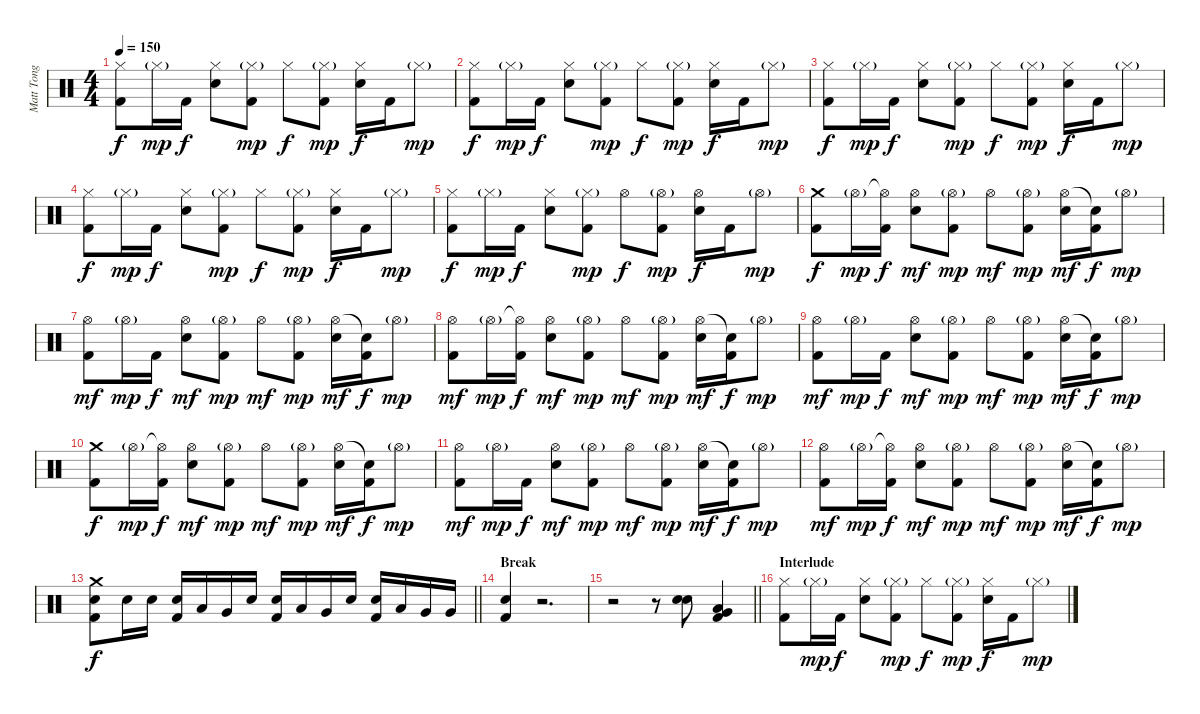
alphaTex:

\track ("Matt Tong" "Matt Tong") {instrument percussion}
\staff {score}
\articulation defaults
\ts (4 4)
\tempo 150
\clef neutral
\ks c
("Hi-Hat (closed)" "Kick (hit) 2").8{dy f} "Hi-Hat (closed)"{g}.16{dy mp} "Kick (hit) 2".16{dy f} ("Hi-Hat (closed)" "Electric Snare (hit)").8 ("Hi-Hat (closed)"{g} "Kick (hit) 2").8{dy mp} "Hi-Hat (closed)".8{dy f} ("Hi-Hat (closed)"{g} "Kick (hit) 2").8{dy mp} ("Hi-Hat (closed)" "Electric Snare (hit)").16{dy f} "Kick (hit) 2".16 "Hi-Hat (closed)"{g}.8{dy mp} |
("Hi-Hat (closed)" "Kick (hit) 2").8{dy f} "Hi-Hat (closed)"{g}.16{dy mp} "Kick (hit) 2".16{dy f} ("Hi-Hat (closed)" "Electric Snare (hit)").8 ("Hi-Hat (closed)"{g} "Kick (hit) 2").8{dy mp} "Hi-Hat (closed)".8{dy f} ("Hi-Hat (closed)"{g} "Kick (hit) 2").8{dy mp} ("Hi-Hat (closed)" "Electric Snare (hit)").16{dy f} "Kick (hit) 2".16 "Hi-Hat (closed)"{g}.8{dy mp} |
("Hi-Hat (closed)" "Kick (hit) 2").8{dy f} "Hi-Hat (closed)"{g}.16{dy mp} "Kick (hit) 2".16{dy f} ("Hi-Hat (closed)" "Electric Snare (hit)").8 ("Hi-Hat (closed)"{g} "Kick (hit) 2").8{dy mp} "Hi-Hat (closed)".8{dy f} ("Hi-Hat (closed)"{g} "Kick (hit) 2").8{dy mp} ("Hi-Hat (closed)" "Electric Snare (hit)").16{dy f} "Kick (hit) 2".16 "Hi-Hat (closed)"{g}.8{dy mp} |
("Hi-Hat (closed)" "Kick (hit) 2").8{dy f} "Hi-Hat (closed)"{g}.16{dy mp} "Kick (hit) 2".16{dy f} ("Hi-Hat (closed)" "Electric Snare (hit)").8 ("Hi-Hat (closed)"{g} "Kick (hit) 2").8{dy mp} "Hi-Hat (closed)".8{dy f} ("Hi-Hat (closed)"{g} "Kick (hit) 2").8{dy mp} ("Hi-Hat (closed)" "Electric Snare (hit)").16{dy f} "Kick (hit) 2".16 "Hi-Hat (closed)"{g}.8{dy mp} |
("Hi-Hat (closed)" "Kick (hit) 2").8{dy f} "Hi-Hat (closed)"{g}.16{dy mp} "Kick (hit) 2".16{dy f} ("Hi-Hat (closed)" "Electric Snare (hit)").8 ("Hi-Hat (closed)"{g} "Kick (hit) 2").8{dy mp} "Hi-Hat (open)".8{dy f} ("Hi-Hat (open)"{g} "Kick (hit) 2").8{dy mp} ("Hi-Hat (open)" "Electric Snare (hit)").16{dy f} "Kick (hit) 2".16 "Hi-Hat (open)"{g}.8{dy mp} |
("Crash medium (hit)" "Kick (hit) 2").8{dy f} "Hi-Hat (open)"{g}.16{dy mp} ("Hi-Hat (open)"{t} "Kick (hit) 2").16{dy f} ("Hi-Hat (open)" "Electric Snare (hit)").8{dy mf} ("Hi-Hat (open)"{g} "Kick (hit) 2").8{dy mp} "Hi-Hat (open)".8{dy mf} ("Hi-Hat (open)"{g} "Kick (hit) 2").8{dy mp} ("Hi-Hat (open)" "Electric Snare (hit)").16{dy mf} ("Snare (hit)"{t} "Kick (hit) 2").16{dy f} "Hi-Hat (open)"{g}.8{dy mp} |
("Hi-Hat (open)" "Kick (hit) 2").8{dy mf} "Hi-Hat (open)"{g}.16{dy mp} "Kick (hit) 2".16{dy f} ("Hi-Hat (open)" "Electric Snare (hit)").8{dy mf} ("Hi-Hat (open)"{g} "Kick (hit) 2").8{dy mp} "Hi-Hat (open)".8{dy mf} ("Hi-Hat (open)"{g} "Kick (hit) 2").8{dy mp} ("Hi-Hat (open)" "Electric Snare (hit)").16{dy mf} ("Snare (hit)"{t} "Kick (hit) 2").16{dy f} "Hi-Hat (open)"{g}.8{dy mp} |
("Hi-Hat (open)" "Kick (hit) 2").8{dy mf} "Hi-Hat (open)"{g}.16{dy mp} ("Hi-Hat (open)"{t} "Kick (hit) 2").16{dy f} ("Hi-Hat (open)" "Electric Snare (hit)").8{dy mf} ("Hi-Hat (open)"{g} "Kick (hit) 2").8{dy mp} "Hi-Hat (open)".8{dy mf} ("Hi-Hat (open)"{g} "Kick (hit) 2").8{dy mp} ("Hi-Hat (open)" "Electric Snare (hit)").16{dy mf} ("Snare (hit)"{t} "Kick (hit) 2").16{dy f} "Hi-Hat (open)"{g}.8{dy mp} |
("Hi-Hat (open)" "Kick (hit) 2").8{dy mf} "Hi-Hat (open)"{g}.16{dy mp} "Kick (hit) 2".16{dy f} ("Hi-Hat (open)" "Electric Snare (hit)").8{dy mf} ("Hi-Hat (open)"{g} "Kick (hit) 2").8{dy mp} "Hi-Hat (open)".8{dy mf} ("Hi-Hat (open)"{g} "Kick (hit) 2").8{dy mp} ("Hi-Hat (open)" "Electric Snare (hit)").16{dy mf} ("Snare (hit)"{t} "Kick (hit) 2").16{dy f} "Hi-Hat (open)"{g}.8{dy mp} |
("Crash medium (hit)" "Kick (hit) 2").8{dy f} "Hi-Hat (open)"{g}.16{dy mp} ("Hi-Hat (open)"{t} "Kick (hit) 2").16{dy f} ("Hi-Hat (open)" "Electric Snare (hit)").8{dy mf} ("Hi-Hat (open)"{g} "Kick (hit) 2").8{dy mp} "Hi-Hat (open)".8{dy mf} ("Hi-Hat (open)"{g} "Kick (hit) 2").8{dy mp} ("Hi-Hat (open)" "Electric Snare (hit)").16{dy mf} ("Snare (hit)"{t} "Kick (hit) 2").16{dy f} "Hi-Hat (open)"{g}.8{dy mp} |
("Hi-Hat (open)" "Kick (hit) 2").8{dy mf} "Hi-Hat (open)"{g}.16{dy mp} "Kick (hit) 2".16{dy f} ("Hi-Hat (open)" "Electric Snare (hit)").8{dy mf} ("Hi-Hat (open)"{g} "Kick (hit) 2").8{dy mp} "Hi-Hat (open)".8{dy mf} ("Hi-Hat (open)"{g} "Kick (hit) 2").8{dy mp} ("Hi-Hat (open)" "Electric Snare (hit)").16{dy mf} ("Snare (hit)"{t} "Kick (hit) 2").16{dy f} "Hi-Hat (open)"{g}.8{dy mp} |
("Hi-Hat (open)" "Kick (hit) 2").8{dy mf} "Hi-Hat (open)"{g}.16{dy mp} ("Hi-Hat (open)"{t} "Kick (hit) 2").16{dy f} ("Hi-Hat (open)" "Electric Snare (hit)").8{dy mf} ("Hi-Hat (open)"{g} "Kick (hit) 2").8{dy mp} "Hi-Hat (open)".8{dy mf} ("Hi-Hat (open)"{g} "Kick (hit) 2").8{dy mp} ("Hi-Hat (open)" "Electric Snare (hit)").16{dy mf} ("Snare (hit)"{t} "Kick (hit) 2").16{dy f} "Hi-Hat (open)"{g}.8{dy mp} |
\barLineRight lightlight
("Crash medium (hit)" "Electric Snare (hit)" "Kick (hit) 2").8{dy f} "Electric Snare (hit)".16 "Electric Snare (hit)".16 ("Electric Snare (hit)" "Kick (hit) 2").16 "Low Tom (hit)".16 "Very Low Tom (hit)".16 "Electric Snare (hit)".16 ("Electric Snare (hit)" "Kick (hit) 2").16 "Low Tom (hit)".16 "Very Low Tom (hit)".16 "Electric Snare (hit)".16 ("Electric Snare (hit)" "Kick (hit) 2").16 "Low Tom (hit)".16 "Very Low Tom (hit)".16 "Very Low Tom (hit)".16 |
\section ("" "Break")
("Electric Snare (hit)" "Kick (hit) 2").4 r.2{d} |
\barLineRight lightlight
r.2 r.8 ("Hand Clap (hit)" "Electric Snare (hit)").8 ("Low Tom (hit)" "Very Low Tom (hit)" "Kick (hit) 2").4 |
\section ("" "Interlude")
("Hi-Hat (closed)" "Kick (hit) 2").8 "Hi-Hat (closed)"{g}.16{dy mp} "Kick (hit) 2".16{dy f} ("Hi-Hat (closed)" "Electric Snare (hit)").8 ("Hi-Hat (closed)"{g} "Kick (hit) 2").8{dy mp} "Hi-Hat (closed)".8{dy f} ("Hi-Hat (closed)"{g} "Kick (hit) 2").8{dy mp} ("Hi-Hat (closed)" "Electric Snare (hit)").16{dy f} "Kick (hit) 2".16 "Hi-Hat (closed)"{g}.8{dy mp}
